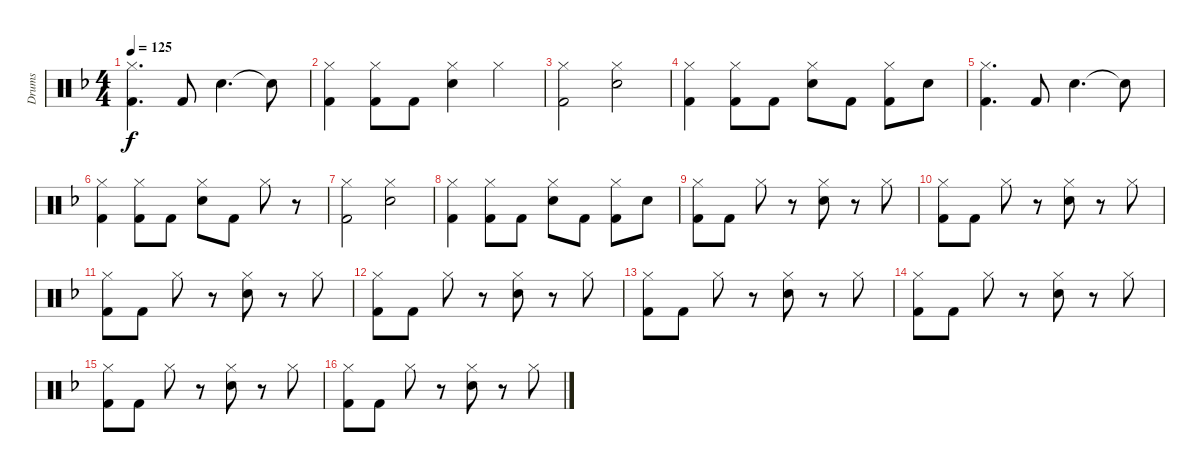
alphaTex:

\track ("Drums" "Drums") {instrument percussion}
\staff {score}
\articulation defaults
\ts (4 4)
\tempo 125
\clef neutral
\ks f
("Hi-Hat (closed)" "Kick (hit) 2").4{d dy f} "Kick (hit) 2".8 "Snare (hit) 2".4{d} "Snare (hit)"{t}.8 |
("Hi-Hat (closed)" "Kick (hit) 2").4 ("Hi-Hat (closed)" "Kick (hit) 2").8 "Kick (hit) 2".8 ("Hi-Hat (closed)" "Snare (hit) 2").4 "Hi-Hat (closed)".4 |
("Hi-Hat (closed)" "Kick (hit) 2").2 ("Hi-Hat (closed)" "Snare (hit) 2").2 |
("Hi-Hat (closed)" "Kick (hit) 2").4 ("Hi-Hat (closed)" "Kick (hit) 2").8 "Kick (hit) 2".8 ("Hi-Hat (closed)" "Snare (hit) 2").8 "Kick (hit) 2".8 ("Hi-Hat (closed)" "Kick (hit) 2").8 "Snare (hit) 2".8 |
("Hi-Hat (closed)" "Kick (hit) 2").4{d} "Kick (hit) 2".8 "Snare (hit) 2".4{d} "Snare (hit)"{t}.8 |
("Hi-Hat (closed)" "Kick (hit) 2").4 ("Hi-Hat (closed)" "Kick (hit) 2").8 "Kick (hit) 2".8 ("Hi-Hat (closed)" "Snare (hit) 2").8 "Kick (hit) 2".8 "Hi-Hat (closed)".8 r.8 |
("Hi-Hat (closed)" "Kick (hit) 2").2 ("Hi-Hat (closed)" "Snare (hit) 2").2 |
("Hi-Hat (closed)" "Kick (hit) 2").4 ("Hi-Hat (closed)" "Kick (hit) 2").8 "Kick (hit) 2".8 ("Hi-Hat (closed)" "Snare (hit) 2").8 "Kick (hit) 2".8 ("Hi-Hat (closed)" "Kick (hit) 2").8 "Snare (hit) 2".8 |
("Hi-Hat (closed)" "Kick (hit) 2").8 "Kick (hit) 2".8 "Hi-Hat (closed)".8 r.8 ("Hi-Hat (closed)" "Snare (hit) 2").8 r.8 "Hi-Hat (closed)".8 |
("Hi-Hat (closed)" "Kick (hit) 2").8 "Kick (hit) 2".8 "Hi-Hat (closed)".8 r.8 ("Hi-Hat (closed)" "Snare (hit) 2").8 r.8 "Hi-Hat (closed)".8 |
("Hi-Hat (closed)" "Kick (hit) 2").8 "Kick (hit) 2".8 "Hi-Hat (closed)".8 r.8 ("Hi-Hat (closed)" "Snare (hit) 2").8 r.8 "Hi-Hat (closed)".8 |
("Hi-Hat (closed)" "Kick (hit) 2").8 "Kick (hit) 2".8 "Hi-Hat (closed)".8 r.8 ("Hi-Hat (closed)" "Snare (hit) 2").8 r.8 "Hi-Hat (closed)".8 |
("Hi-Hat (closed)" "Kick (hit) 2").8 "Kick (hit) 2".8 "Hi-Hat (closed)".8 r.8 ("Hi-Hat (closed)" "Snare (hit) 2").8 r.8 "Hi-Hat (closed)".8 |
("Hi-Hat (closed)" "Kick (hit) 2").8 "Kick (hit) 2".8 "Hi-Hat (closed)".8 r.8 ("Hi-Hat (closed)" "Snare (hit) 2").8 r.8 "Hi-Hat (closed)".8 |
("Hi-Hat (closed)" "Kick (hit) 2").8 "Kick (hit) 2".8 "Hi-Hat (closed)".8 r.8 ("Hi-Hat (closed)" "Snare (hit) 2").8 r.8 "Hi-Hat (closed)".8 |
("Hi-Hat (closed)" "Kick (hit) 2").8 "Kick (hit) 2".8 "Hi-Hat (closed)".8 r.8 ("Hi-Hat (closed)" "Snare (hit) 2").8 r.8 "Hi-Hat (closed)".8
